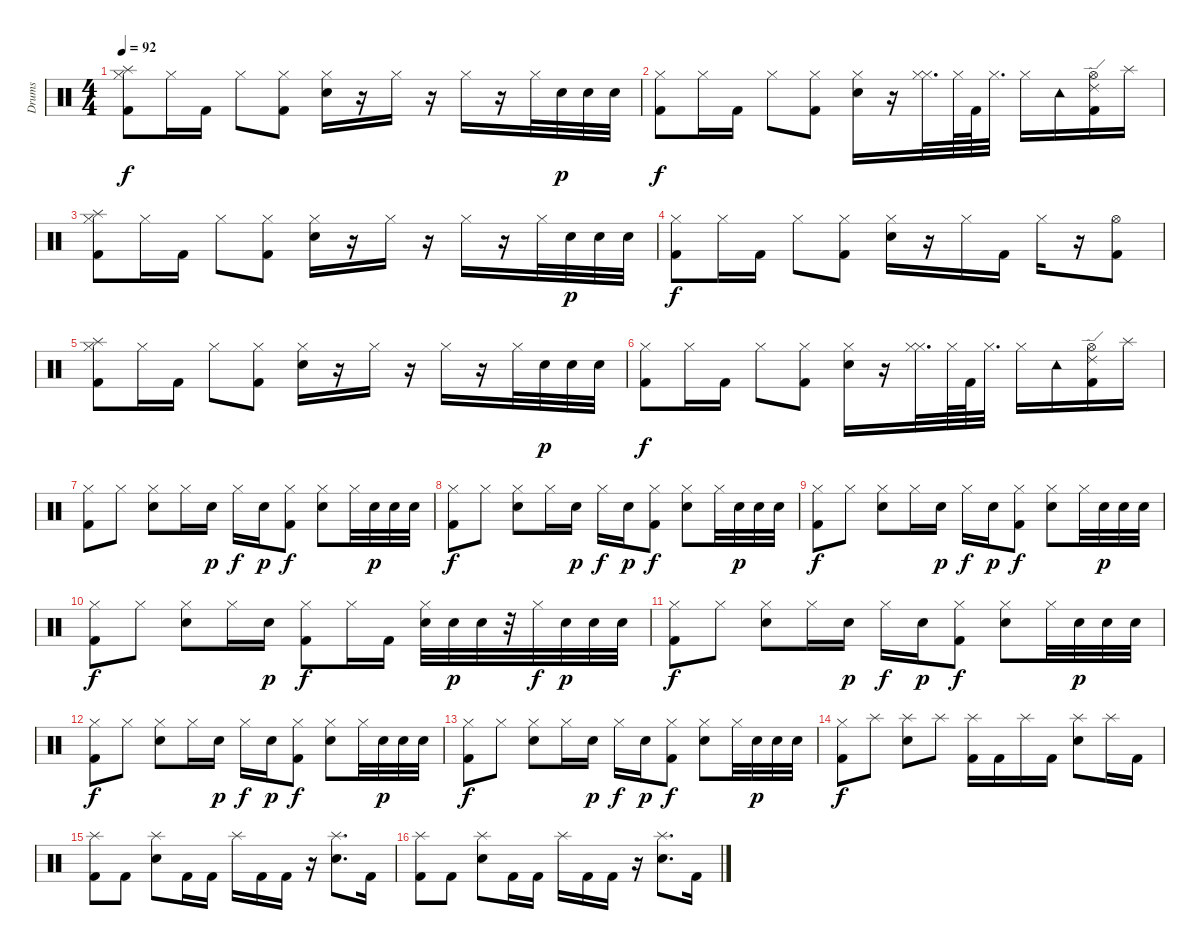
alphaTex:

\track ("Drums" "Drums") {instrument percussion}
\staff {score}
\articulation defaults
\ts (4 4)
\tempo 92
\clef neutral
\ks c
("Splash (hit)" "Hi-Hat (closed)" "Kick (hit) 2").8{dy f} "Hi-Hat (closed)".16 "Kick (hit) 2".16 "Hi-Hat (closed)".8 ("Hi-Hat (closed)" "Kick (hit) 2").8 ("Hi-Hat (closed)" "Electric Snare (hit)").16 r.16 "Hi-Hat (closed)".16 r.16 "Hi-Hat (closed)".16 r.16 "Hi-Hat (closed)".32 "Electric Snare (hit)".32{dy p} "Electric Snare (hit)".32 "Electric Snare (hit)".32 |
("Hi-Hat (closed)" "Kick (hit) 2").8{dy f} "Hi-Hat (closed)".16 "Kick (hit) 2".16 "Hi-Hat (closed)".8 ("Hi-Hat (closed)" "Kick (hit) 2").8 ("Hi-Hat (closed)" "Electric Snare (hit)").16 r.16 ("Hi-Hat (closed)" "Hi-Hat (closed)").32{d} "Hi-Hat (closed)".64 "Kick (hit) 2".64 "Hi-Hat (closed)".32{d} "Hi-Hat (closed)".16 "Tambourine (hit)".16 ("Ride (edge) 2" "Hi-Hat (open)" "Kick (hit) 2").16 "Splash (hit)".16 |
("Splash (hit)" "Hi-Hat (closed)" "Kick (hit) 2").8 "Hi-Hat (closed)".16 "Kick (hit) 2".16 "Hi-Hat (closed)".8 ("Hi-Hat (closed)" "Kick (hit) 2").8 ("Hi-Hat (closed)" "Electric Snare (hit)").16 r.16 "Hi-Hat (closed)".16 r.16 "Hi-Hat (closed)".16 r.16 "Hi-Hat (closed)".32 "Electric Snare (hit)".32{dy p} "Electric Snare (hit)".32 "Electric Snare (hit)".32 |
("Hi-Hat (closed)" "Kick (hit) 2").8{dy f} "Hi-Hat (closed)".16 "Kick (hit) 2".16 "Hi-Hat (closed)".8 ("Hi-Hat (closed)" "Kick (hit) 2").8 ("Hi-Hat (closed)" "Electric Snare (hit)").16 r.16 "Hi-Hat (closed)".16 "Kick (hit) 2".16 "Hi-Hat (closed)".16 r.16 ("Hi-Hat (open)" "Kick (hit) 2").8 |
("Splash (hit)" "Hi-Hat (closed)" "Kick (hit) 2").8 "Hi-Hat (closed)".16 "Kick (hit) 2".16 "Hi-Hat (closed)".8 ("Hi-Hat (closed)" "Kick (hit) 2").8 ("Hi-Hat (closed)" "Electric Snare (hit)").16 r.16 "Hi-Hat (closed)".16 r.16 "Hi-Hat (closed)".16 r.16 "Hi-Hat (closed)".32 "Electric Snare (hit)".32{dy p} "Electric Snare (hit)".32 "Electric Snare (hit)".32 |
("Hi-Hat (closed)" "Kick (hit) 2").8{dy f} "Hi-Hat (closed)".16 "Kick (hit) 2".16 "Hi-Hat (closed)".8 ("Hi-Hat (closed)" "Kick (hit) 2").8 ("Hi-Hat (closed)" "Electric Snare (hit)").16 r.16 ("Hi-Hat (closed)" "Hi-Hat (closed)").32{d} "Hi-Hat (closed)".64 "Kick (hit) 2".64 "Hi-Hat (closed)".32{d} "Hi-Hat (closed)".16 "Tambourine (hit)".16 ("Ride (edge) 2" "Hi-Hat (open)" "Kick (hit) 2").16 "Splash (hit)".16 |
("Kick (hit) 2" "Hi-Hat (closed)").8 "Hi-Hat (closed)".8 ("Electric Snare (hit)" "Hi-Hat (closed)").8 "Hi-Hat (closed)".16 "Electric Snare (hit)".16{dy p} "Hi-Hat (closed)".16{dy f} "Electric Snare (hit)".16{dy p} ("Kick (hit) 2" "Hi-Hat (closed)").8{dy f} ("Electric Snare (hit)" "Hi-Hat (closed)").8 "Hi-Hat (closed)".32 "Electric Snare (hit)".32{dy p} "Electric Snare (hit)".32 "Electric Snare (hit)".32 |
("Kick (hit) 2" "Hi-Hat (closed)").8{dy f} "Hi-Hat (closed)".8 ("Electric Snare (hit)" "Hi-Hat (closed)").8 "Hi-Hat (closed)".16 "Electric Snare (hit)".16{dy p} "Hi-Hat (closed)".16{dy f} "Electric Snare (hit)".16{dy p} ("Kick (hit) 2" "Hi-Hat (closed)").8{dy f} ("Electric Snare (hit)" "Hi-Hat (closed)").8 "Hi-Hat (closed)".32 "Electric Snare (hit)".32{dy p} "Electric Snare (hit)".32 "Electric Snare (hit)".32 |
("Kick (hit) 2" "Hi-Hat (closed)").8{dy f} "Hi-Hat (closed)".8 ("Electric Snare (hit)" "Hi-Hat (closed)").8 "Hi-Hat (closed)".16 "Electric Snare (hit)".16{dy p} "Hi-Hat (closed)".16{dy f} "Electric Snare (hit)".16{dy p} ("Kick (hit) 2" "Hi-Hat (closed)").8{dy f} ("Electric Snare (hit)" "Hi-Hat (closed)").8 "Hi-Hat (closed)".32 "Electric Snare (hit)".32{dy p} "Electric Snare (hit)".32 "Electric Snare (hit)".32 |
("Kick (hit) 2" "Hi-Hat (closed)").8{dy f} "Hi-Hat (closed)".8 ("Electric Snare (hit)" "Hi-Hat (closed)").8 "Hi-Hat (closed)".16 "Electric Snare (hit)".16{dy p} ("Hi-Hat (closed)" "Kick (hit) 2").8{dy f} "Hi-Hat (closed)".16 "Kick (hit) 2".16 ("Hi-Hat (closed)" "Electric Snare (hit)").32 "Electric Snare (hit)".32{dy p} "Electric Snare (hit)".32 r.32 "Hi-Hat (closed)".32{dy f} "Electric Snare (hit)".32{dy p} "Electric Snare (hit)".32 "Electric Snare (hit)".32 |
("Kick (hit) 2" "Hi-Hat (closed)").8{dy f} "Hi-Hat (closed)".8 ("Electric Snare (hit)" "Hi-Hat (closed)").8 "Hi-Hat (closed)".16 "Electric Snare (hit)".16{dy p} "Hi-Hat (closed)".16{dy f} "Electric Snare (hit)".16{dy p} ("Kick (hit) 2" "Hi-Hat (closed)").8{dy f} ("Electric Snare (hit)" "Hi-Hat (closed)").8 "Hi-Hat (closed)".32 "Electric Snare (hit)".32{dy p} "Electric Snare (hit)".32 "Electric Snare (hit)".32 |
("Kick (hit) 2" "Hi-Hat (closed)").8{dy f} "Hi-Hat (closed)".8 ("Electric Snare (hit)" "Hi-Hat (closed)").8 "Hi-Hat (closed)".16 "Electric Snare (hit)".16{dy p} "Hi-Hat (closed)".16{dy f} "Electric Snare (hit)".16{dy p} ("Kick (hit) 2" "Hi-Hat (closed)").8{dy f} ("Electric Snare (hit)" "Hi-Hat (closed)").8 "Hi-Hat (closed)".32 "Electric Snare (hit)".32{dy p} "Electric Snare (hit)".32 "Electric Snare (hit)".32 |
("Kick (hit) 2" "Hi-Hat (closed)").8{dy f} "Hi-Hat (closed)".8 ("Electric Snare (hit)" "Hi-Hat (closed)").8 "Hi-Hat (closed)".16 "Electric Snare (hit)".16{dy p} "Hi-Hat (closed)".16{dy f} "Electric Snare (hit)".16{dy p} ("Kick (hit) 2" "Hi-Hat (closed)").8{dy f} ("Electric Snare (hit)" "Hi-Hat (closed)").8 "Hi-Hat (closed)".32 "Electric Snare (hit)".32{dy p} "Electric Snare (hit)".32 "Electric Snare (hit)".32 |
("Hi-Hat (closed)" "Kick (hit) 2").8{dy f} "Splash (hit)".8 ("Electric Snare (hit)" "Splash (hit)").8 "Splash (hit)".8 ("Kick (hit) 2" "Splash (hit)").16 "Kick (hit) 2".16 "Splash (hit)".16 "Kick (hit) 2".16 ("Electric Snare (hit)" "Splash (hit)").8 "Splash (hit)".16 "Kick (hit) 2".16 |
("Splash (hit)" "Kick (hit) 2").8 "Kick (hit) 2".8 ("Splash (hit)" "Electric Snare (hit)").8 "Kick (hit) 2".16 "Kick (hit) 2".16 "Splash (hit)".16 "Kick (hit) 2".16 "Kick (hit) 2".16 r.16 ("Splash (hit)" "Electric Snare (hit)").8{d} "Kick (hit) 2".16 |
("Splash (hit)" "Kick (hit) 2").8 "Kick (hit) 2".8 ("Splash (hit)" "Electric Snare (hit)").8 "Kick (hit) 2".16 "Kick (hit) 2".16 "Splash (hit)".16 "Kick (hit) 2".16 "Kick (hit) 2".16 r.16 ("Splash (hit)" "Electric Snare (hit)").8{d} "Kick (hit) 2".16
